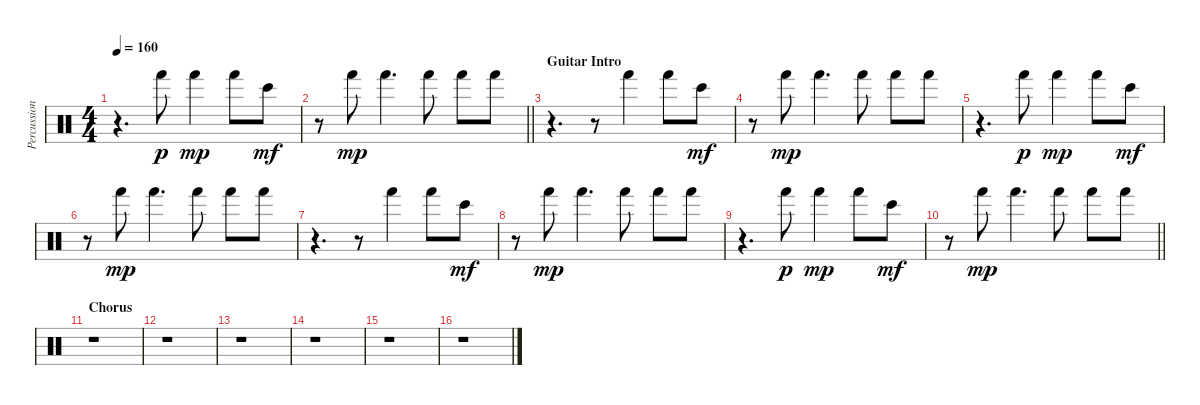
\track ("Percussion" "Percussion") {instrument percussion}
\staff {score}
\articulation defaults
\ts (4 4)
\tempo 160
\clef neutral
\ks c
r.4{d dy mp} "Hand (hit)".8{dy p} "Hand (hit)".4{dy mp} "Hand (hit)".8 "Bongo High (hit)".8{dy mf} |
\barLineRight lightlight
r.8 "Hand (hit)".8{dy mp} "Hand (hit)".4{d} "Hand (hit)".8 "Hand (hit)".8 "Hand (hit)".8 |
\section ("" "Guitar Intro")
r.4{d} r.8 "Hand (hit)".4 "Hand (hit)".8 "Bongo High (hit)".8{dy mf} |
r.8 "Hand (hit)".8{dy mp} "Hand (hit)".4{d} "Hand (hit)".8 "Hand (hit)".8 "Hand (hit)".8 |
r.4{d} "Hand (hit)".8{dy p} "Hand (hit)".4{dy mp} "Hand (hit)".8 "Bongo High (hit)".8{dy mf} |
r.8 "Hand (hit)".8{dy mp} "Hand (hit)".4{d} "Hand (hit)".8 "Hand (hit)".8 "Hand (hit)".8 |
r.4{d} r.8 "Hand (hit)".4 "Hand (hit)".8 "Bongo High (hit)".8{dy mf} |
r.8 "Hand (hit)".8{dy mp} "Hand (hit)".4{d} "Hand (hit)".8 "Hand (hit)".8 "Hand (hit)".8 |
r.4{d} "Hand (hit)".8{dy p} "Hand (hit)".4{dy mp} "Hand (hit)".8 "Bongo High (hit)".8{dy mf} |
\barLineRight lightlight
r.8 "Hand (hit)".8{dy mp} "Hand (hit)".4{d} "Hand (hit)".8 "Hand (hit)".8 "Hand (hit)".8 |
\section ("" "Chorus")
r.1 |
r.1 |
r.1 |
r.1 |
r.1 |
r.1
